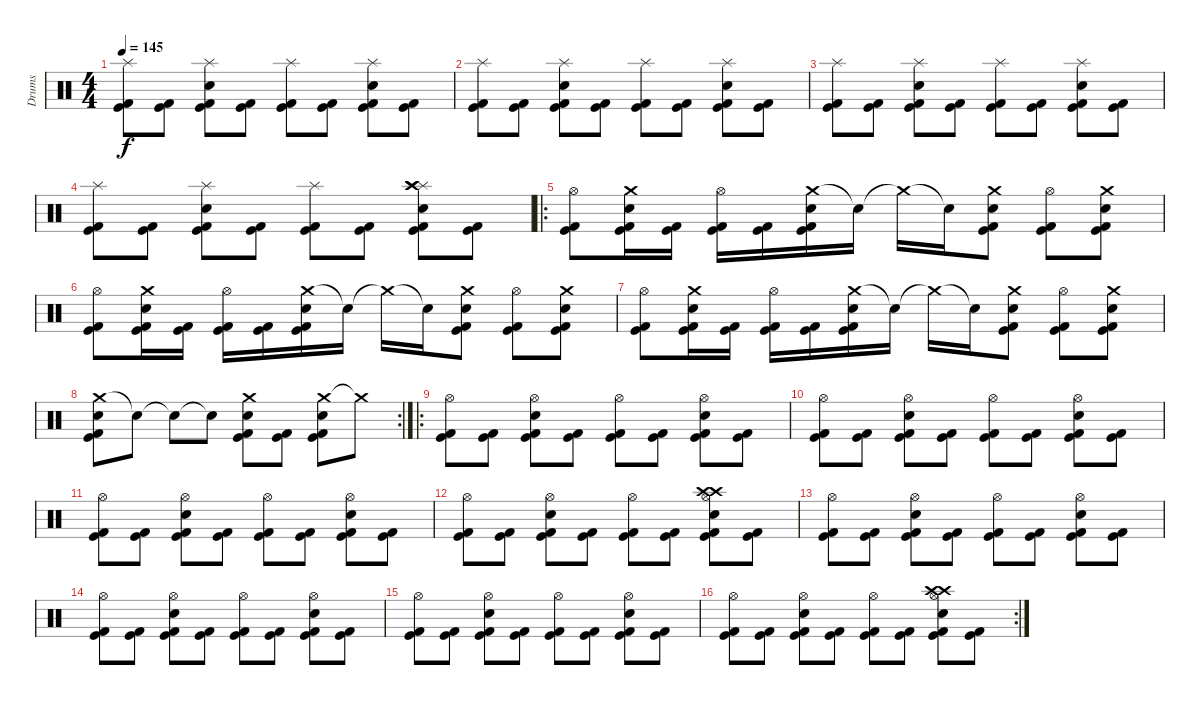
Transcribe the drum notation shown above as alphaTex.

\track ("Drums" "Drums") {instrument percussion}
\staff {score}
\articulation defaults
\ts (4 4)
\tempo 145
\clef neutral
\ks c
("Splash (hit)" "Kick (hit) 2" "Kick (hit)").8{dy f} ("Kick (hit) 2" "Kick (hit)").8 ("Splash (hit)" "Snare (hit) 2" "Kick (hit) 2" "Kick (hit)").8 ("Kick (hit) 2" "Kick (hit)").8 ("Splash (hit)" "Kick (hit) 2" "Kick (hit)").8 ("Kick (hit) 2" "Kick (hit)").8 ("Splash (hit)" "Snare (hit) 2" "Kick (hit) 2" "Kick (hit)").8 ("Kick (hit) 2" "Kick (hit)").8 |
("Splash (hit)" "Kick (hit) 2" "Kick (hit)").8 ("Kick (hit) 2" "Kick (hit)").8 ("Splash (hit)" "Snare (hit) 2" "Kick (hit) 2" "Kick (hit)").8 ("Kick (hit) 2" "Kick (hit)").8 ("Splash (hit)" "Kick (hit) 2" "Kick (hit)").8 ("Kick (hit) 2" "Kick (hit)").8 ("Splash (hit)" "Snare (hit) 2" "Kick (hit) 2" "Kick (hit)").8 ("Kick (hit) 2" "Kick (hit)").8 |
("Splash (hit)" "Kick (hit) 2" "Kick (hit)").8 ("Kick (hit) 2" "Kick (hit)").8 ("Splash (hit)" "Snare (hit) 2" "Kick (hit) 2" "Kick (hit)").8 ("Kick (hit) 2" "Kick (hit)").8 ("Splash (hit)" "Kick (hit) 2" "Kick (hit)").8 ("Kick (hit) 2" "Kick (hit)").8 ("Splash (hit)" "Snare (hit) 2" "Kick (hit) 2" "Kick (hit)").8 ("Kick (hit) 2" "Kick (hit)").8 |
("Splash (hit)" "Kick (hit) 2" "Kick (hit)").8 ("Kick (hit) 2" "Kick (hit)").8 ("Splash (hit)" "Snare (hit) 2" "Kick (hit) 2" "Kick (hit)").8 ("Kick (hit) 2" "Kick (hit)").8 ("Splash (hit)" "Kick (hit) 2" "Kick (hit)").8 ("Kick (hit) 2" "Kick (hit)").8 ("Splash (hit)" "Snare (hit) 2" "Kick (hit) 2" "Kick (hit)" "Crash high (hit)" "Crash high (hit)").8 ("Kick (hit) 2" "Kick (hit)").8 |
\ro
("Hi-Hat (open)" "Kick (hit) 2" "Kick (hit)").8 ("Crash medium (hit)" "Snare (hit) 2" "Kick (hit) 2" "Kick (hit)").16 ("Kick (hit) 2" "Kick (hit)").16 ("Hi-Hat (open)" "Kick (hit) 2" "Kick (hit)").16 ("Kick (hit) 2" "Kick (hit)").16 ("Crash medium (hit)" "Snare (hit) 2" "Kick (hit) 2" "Kick (hit)").16 "Snare (hit)"{t}.16 "Crash medium (hit)"{t}.16 "Snare (hit)"{t}.16 ("Crash medium (hit)" "Snare (hit) 2" "Kick (hit) 2" "Kick (hit)").8 ("Hi-Hat (open)" "Kick (hit) 2" "Kick (hit)").8 ("Crash medium (hit)" "Snare (hit) 2" "Kick (hit) 2" "Kick (hit)").8 |
("Hi-Hat (open)" "Kick (hit) 2" "Kick (hit)").8 ("Crash medium (hit)" "Snare (hit) 2" "Kick (hit) 2" "Kick (hit)").16 ("Kick (hit) 2" "Kick (hit)").16 ("Hi-Hat (open)" "Kick (hit) 2" "Kick (hit)").16 ("Kick (hit) 2" "Kick (hit)").16 ("Crash medium (hit)" "Snare (hit) 2" "Kick (hit) 2" "Kick (hit)").16 "Snare (hit)"{t}.16 "Crash medium (hit)"{t}.16 "Snare (hit)"{t}.16 ("Crash medium (hit)" "Snare (hit) 2" "Kick (hit) 2" "Kick (hit)").8 ("Hi-Hat (open)" "Kick (hit) 2" "Kick (hit)").8 ("Crash medium (hit)" "Snare (hit) 2" "Kick (hit) 2" "Kick (hit)").8 |
("Hi-Hat (open)" "Kick (hit) 2" "Kick (hit)").8 ("Crash medium (hit)" "Snare (hit) 2" "Kick (hit) 2" "Kick (hit)").16 ("Kick (hit) 2" "Kick (hit)").16 ("Hi-Hat (open)" "Kick (hit) 2" "Kick (hit)").16 ("Kick (hit) 2" "Kick (hit)").16 ("Crash medium (hit)" "Snare (hit) 2" "Kick (hit) 2" "Kick (hit)").16 "Snare (hit)"{t}.16 "Crash medium (hit)"{t}.16 "Snare (hit)"{t}.16 ("Crash medium (hit)" "Snare (hit) 2" "Kick (hit) 2" "Kick (hit)").8 ("Hi-Hat (open)" "Kick (hit) 2" "Kick (hit)").8 ("Crash medium (hit)" "Snare (hit) 2" "Kick (hit) 2" "Kick (hit)").8 |
\rc 2
("Crash medium (hit)" "Snare (hit) 2" "Kick (hit) 2" "Kick (hit)").8 "Snare (hit)"{t}.8 "Snare (hit)"{t}.8 "Snare (hit)"{t}.8 ("Crash medium (hit)" "Snare (hit) 2" "Kick (hit) 2" "Kick (hit)").8 ("Kick (hit) 2" "Kick (hit)").8 ("Crash medium (hit)" "Snare (hit) 2" "Kick (hit) 2" "Kick (hit)").8 "Crash medium (hit)"{t}.8 |
\ro
("Hi-Hat (open)" "Kick (hit) 2" "Kick (hit)").8 ("Kick (hit) 2" "Kick (hit)").8 ("Hi-Hat (open)" "Snare (hit) 2" "Kick (hit) 2" "Kick (hit)").8 ("Kick (hit) 2" "Kick (hit)").8 ("Hi-Hat (open)" "Kick (hit) 2" "Kick (hit)").8 ("Kick (hit) 2" "Kick (hit)").8 ("Hi-Hat (open)" "Snare (hit) 2" "Kick (hit) 2" "Kick (hit)").8 ("Kick (hit) 2" "Kick (hit)").8 |
("Hi-Hat (open)" "Kick (hit) 2" "Kick (hit)").8 ("Kick (hit) 2" "Kick (hit)").8 ("Hi-Hat (open)" "Snare (hit) 2" "Kick (hit) 2" "Kick (hit)").8 ("Kick (hit) 2" "Kick (hit)").8 ("Hi-Hat (open)" "Kick (hit) 2" "Kick (hit)").8 ("Kick (hit) 2" "Kick (hit)").8 ("Hi-Hat (open)" "Snare (hit) 2" "Kick (hit) 2" "Kick (hit)").8 ("Kick (hit) 2" "Kick (hit)").8 |
("Hi-Hat (open)" "Kick (hit) 2" "Kick (hit)").8 ("Kick (hit) 2" "Kick (hit)").8 ("Hi-Hat (open)" "Snare (hit) 2" "Kick (hit) 2" "Kick (hit)").8 ("Kick (hit) 2" "Kick (hit)").8 ("Hi-Hat (open)" "Kick (hit) 2" "Kick (hit)").8 ("Kick (hit) 2" "Kick (hit)").8 ("Hi-Hat (open)" "Snare (hit) 2" "Kick (hit) 2" "Kick (hit)").8 ("Kick (hit) 2" "Kick (hit)").8 |
("Hi-Hat (open)" "Kick (hit) 2" "Kick (hit)").8 ("Kick (hit) 2" "Kick (hit)").8 ("Hi-Hat (open)" "Snare (hit) 2" "Kick (hit) 2" "Kick (hit)").8 ("Kick (hit) 2" "Kick (hit)").8 ("Hi-Hat (open)" "Kick (hit) 2" "Kick (hit)").8 ("Kick (hit) 2" "Kick (hit)").8 ("Hi-Hat (open)" "Snare (hit) 2" "Kick (hit) 2" "Kick (hit)" "Crash high (hit)" "Crash high (hit)").8 ("Kick (hit) 2" "Kick (hit)").8 |
("Hi-Hat (open)" "Kick (hit) 2" "Kick (hit)").8 ("Kick (hit) 2" "Kick (hit)").8 ("Hi-Hat (open)" "Snare (hit) 2" "Kick (hit) 2" "Kick (hit)").8 ("Kick (hit) 2" "Kick (hit)").8 ("Hi-Hat (open)" "Kick (hit) 2" "Kick (hit)").8 ("Kick (hit) 2" "Kick (hit)").8 ("Hi-Hat (open)" "Snare (hit) 2" "Kick (hit) 2" "Kick (hit)").8 ("Kick (hit) 2" "Kick (hit)").8 |
("Hi-Hat (open)" "Kick (hit) 2" "Kick (hit)").8 ("Kick (hit) 2" "Kick (hit)").8 ("Hi-Hat (open)" "Snare (hit) 2" "Kick (hit) 2" "Kick (hit)").8 ("Kick (hit) 2" "Kick (hit)").8 ("Hi-Hat (open)" "Kick (hit) 2" "Kick (hit)").8 ("Kick (hit) 2" "Kick (hit)").8 ("Hi-Hat (open)" "Snare (hit) 2" "Kick (hit) 2" "Kick (hit)").8 ("Kick (hit) 2" "Kick (hit)").8 |
("Hi-Hat (open)" "Kick (hit) 2" "Kick (hit)").8 ("Kick (hit) 2" "Kick (hit)").8 ("Hi-Hat (open)" "Snare (hit) 2" "Kick (hit) 2" "Kick (hit)").8 ("Kick (hit) 2" "Kick (hit)").8 ("Hi-Hat (open)" "Kick (hit) 2" "Kick (hit)").8 ("Kick (hit) 2" "Kick (hit)").8 ("Hi-Hat (open)" "Snare (hit) 2" "Kick (hit) 2" "Kick (hit)").8 ("Kick (hit) 2" "Kick (hit)").8 |
\rc 2
("Hi-Hat (open)" "Kick (hit) 2" "Kick (hit)").8 ("Kick (hit) 2" "Kick (hit)").8 ("Hi-Hat (open)" "Snare (hit) 2" "Kick (hit) 2" "Kick (hit)").8 ("Kick (hit) 2" "Kick (hit)").8 ("Hi-Hat (open)" "Kick (hit) 2" "Kick (hit)").8 ("Kick (hit) 2" "Kick (hit)").8 ("Hi-Hat (open)" "Snare (hit) 2" "Kick (hit) 2" "Kick (hit)" "Crash high (hit)" "Crash high (hit)").8 ("Kick (hit) 2" "Kick (hit)").8
